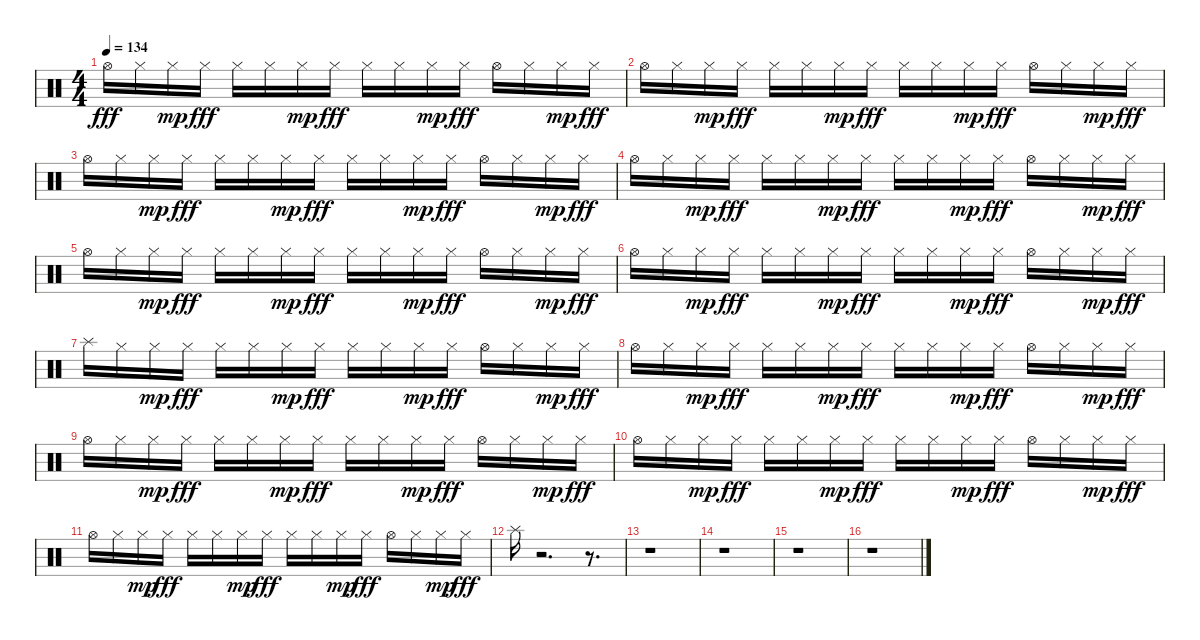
\track "" {instrument percussion}
\staff {score}
\articulation defaults
\ts (4 4)
\tempo 134
\clef neutral
\ks c "Hi-Hat (open)".16{dy fff} "Hi-Hat (closed)".16 "Hi-Hat (closed)".16{dy mp} "Hi-Hat (closed)".16{dy fff} "Hi-Hat (closed)".16 "Hi-Hat (closed)".16 "Hi-Hat (closed)".16{dy mp} "Hi-Hat (closed)".16{dy fff} "Hi-Hat (closed)".16 "Hi-Hat (closed)".16 "Hi-Hat (closed)".16{dy mp} "Hi-Hat (closed)".16{dy fff} "Hi-Hat (open)".16 "Hi-Hat (closed)".16 "Hi-Hat (closed)".16{dy mp} "Hi-Hat (closed)".16{dy fff}
|
"Hi-Hat (open)".16 "Hi-Hat (closed)".16 "Hi-Hat (closed)".16{dy mp} "Hi-Hat (closed)".16{dy fff} "Hi-Hat (closed)".16 "Hi-Hat (closed)".16 "Hi-Hat (closed)".16{dy mp} "Hi-Hat (closed)".16{dy fff} "Hi-Hat (closed)".16 "Hi-Hat (closed)".16 "Hi-Hat (closed)".16{dy mp} "Hi-Hat (closed)".16{dy fff} "Hi-Hat (open)".16 "Hi-Hat (closed)".16 "Hi-Hat (closed)".16{dy mp} "Hi-Hat (closed)".16{dy fff} |
"Hi-Hat (open)".16 "Hi-Hat (closed)".16 "Hi-Hat (closed)".16{dy mp} "Hi-Hat (closed)".16{dy fff} "Hi-Hat (closed)".16 "Hi-Hat (closed)".16 "Hi-Hat (closed)".16{dy mp} "Hi-Hat (closed)".16{dy fff} "Hi-Hat (closed)".16 "Hi-Hat (closed)".16 "Hi-Hat (closed)".16{dy mp} "Hi-Hat (closed)".16{dy fff} "Hi-Hat (open)".16 "Hi-Hat (closed)".16 "Hi-Hat (closed)".16{dy mp} "Hi-Hat (closed)".16{dy fff} |
"Hi-Hat (open)".16 "Hi-Hat (closed)".16 "Hi-Hat (closed)".16{dy mp} "Hi-Hat (closed)".16{dy fff} "Hi-Hat (closed)".16 "Hi-Hat (closed)".16 "Hi-Hat (closed)".16{dy mp} "Hi-Hat (closed)".16{dy fff} "Hi-Hat (closed)".16 "Hi-Hat (closed)".16 "Hi-Hat (closed)".16{dy mp} "Hi-Hat (closed)".16{dy fff} "Hi-Hat (open)".16 "Hi-Hat (closed)".16 "Hi-Hat (closed)".16{dy mp} "Hi-Hat (closed)".16{dy fff} |
"Hi-Hat (open)".16 "Hi-Hat (closed)".16 "Hi-Hat (closed)".16{dy mp} "Hi-Hat (closed)".16{dy fff} "Hi-Hat (closed)".16 "Hi-Hat (closed)".16 "Hi-Hat (closed)".16{dy mp} "Hi-Hat (closed)".16{dy fff} "Hi-Hat (closed)".16 "Hi-Hat (closed)".16 "Hi-Hat (closed)".16{dy mp} "Hi-Hat (closed)".16{dy fff} "Hi-Hat (open)".16 "Hi-Hat (closed)".16 "Hi-Hat (closed)".16{dy mp} "Hi-Hat (closed)".16{dy fff} |
"Hi-Hat (open)".16 "Hi-Hat (closed)".16 "Hi-Hat (closed)".16{dy mp} "Hi-Hat (closed)".16{dy fff} "Hi-Hat (closed)".16 "Hi-Hat (closed)".16 "Hi-Hat (closed)".16{dy mp} "Hi-Hat (closed)".16{dy fff} "Hi-Hat (closed)".16 "Hi-Hat (closed)".16 "Hi-Hat (closed)".16{dy mp} "Hi-Hat (closed)".16{dy fff} "Hi-Hat (open)".16 "Hi-Hat (closed)".16 "Hi-Hat (closed)".16{dy mp} "Hi-Hat (closed)".16{dy fff} |
"Splash (hit)".16 "Hi-Hat (closed)".16 "Hi-Hat (closed)".16{dy mp} "Hi-Hat (closed)".16{dy fff} "Hi-Hat (closed)".16 "Hi-Hat (closed)".16 "Hi-Hat (closed)".16{dy mp} "Hi-Hat (closed)".16{dy fff} "Hi-Hat (closed)".16 "Hi-Hat (closed)".16 "Hi-Hat (closed)".16{dy mp} "Hi-Hat (closed)".16{dy fff} "Hi-Hat (open)".16 "Hi-Hat (closed)".16 "Hi-Hat (closed)".16{dy mp} "Hi-Hat (closed)".16{dy fff} |
"Hi-Hat (open)".16 "Hi-Hat (closed)".16 "Hi-Hat (closed)".16{dy mp} "Hi-Hat (closed)".16{dy fff} "Hi-Hat (closed)".16 "Hi-Hat (closed)".16 "Hi-Hat (closed)".16{dy mp} "Hi-Hat (closed)".16{dy fff} "Hi-Hat (closed)".16 "Hi-Hat (closed)".16 "Hi-Hat (closed)".16{dy mp} "Hi-Hat (closed)".16{dy fff} "Hi-Hat (open)".16 "Hi-Hat (closed)".16 "Hi-Hat (closed)".16{dy mp} "Hi-Hat (closed)".16{dy fff} |
"Hi-Hat (open)".16 "Hi-Hat (closed)".16 "Hi-Hat (closed)".16{dy mp} "Hi-Hat (closed)".16{dy fff} "Hi-Hat (closed)".16 "Hi-Hat (closed)".16 "Hi-Hat (closed)".16{dy mp} "Hi-Hat (closed)".16{dy fff} "Hi-Hat (closed)".16 "Hi-Hat (closed)".16 "Hi-Hat (closed)".16{dy mp} "Hi-Hat (closed)".16{dy fff} "Hi-Hat (open)".16 "Hi-Hat (closed)".16 "Hi-Hat (closed)".16{dy mp} "Hi-Hat (closed)".16{dy fff} |
"Hi-Hat (open)".16 "Hi-Hat (closed)".16 "Hi-Hat (closed)".16{dy mp} "Hi-Hat (closed)".16{dy fff} "Hi-Hat (closed)".16 "Hi-Hat (closed)".16 "Hi-Hat (closed)".16{dy mp} "Hi-Hat (closed)".16{dy fff} "Hi-Hat (closed)".16 "Hi-Hat (closed)".16 "Hi-Hat (closed)".16{dy mp} "Hi-Hat (closed)".16{dy fff} "Hi-Hat (open)".16 "Hi-Hat (closed)".16 "Hi-Hat (closed)".16{dy mp} "Hi-Hat (closed)".16{dy fff} |
"Hi-Hat (open)".16 "Hi-Hat (closed)".16 "Hi-Hat (closed)".16{dy mp} "Hi-Hat (closed)".16{dy fff} "Hi-Hat (closed)".16 "Hi-Hat (closed)".16 "Hi-Hat (closed)".16{dy mp} "Hi-Hat (closed)".16{dy fff} "Hi-Hat (closed)".16 "Hi-Hat (closed)".16 "Hi-Hat (closed)".16{dy mp} "Hi-Hat (closed)".16{dy fff} "Hi-Hat (open)".16 "Hi-Hat (closed)".16 "Hi-Hat (closed)".16{dy mp} "Hi-Hat (closed)".16{dy fff} |
"Splash (hit)".16 r.2{d} r.8{d} |
r.1 |
r.1 |
r.1 |
r.1
